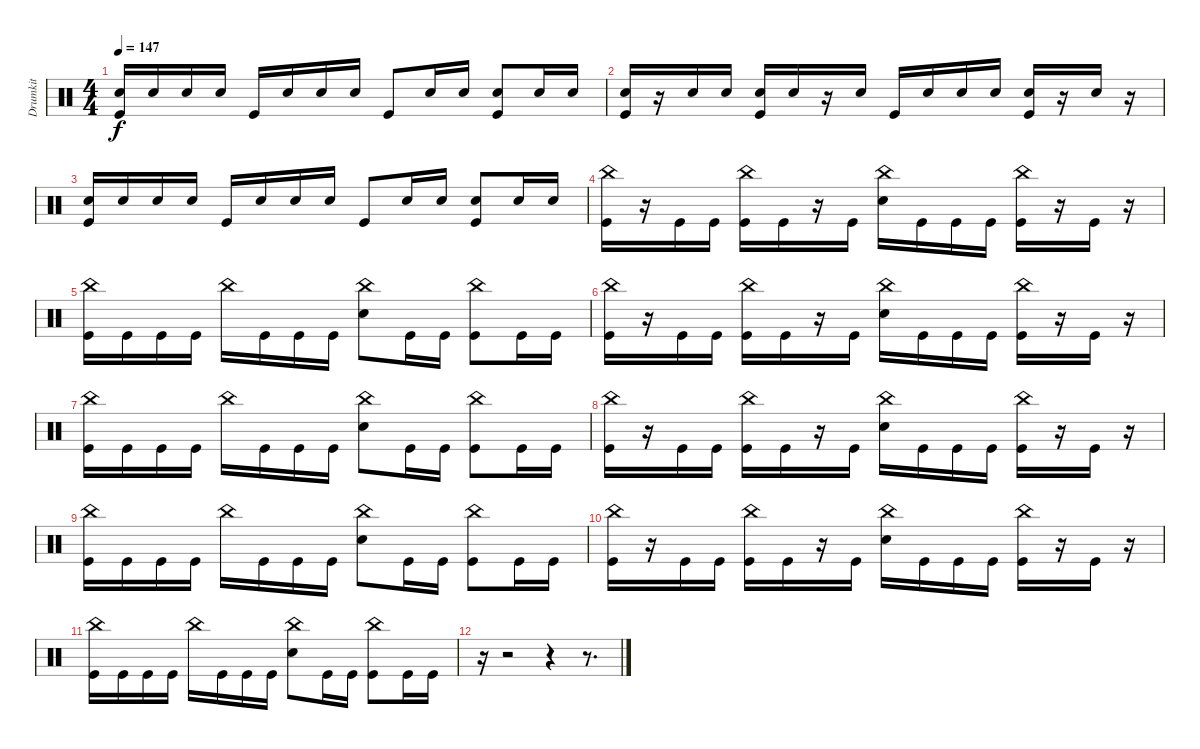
\track ("Drumkit" "Drumkit") {instrument percussion}
\staff {score}
\articulation defaults
\ts (4 4)
\tempo 147
\clef neutral
\ks c
("Snare (hit) 2" "Kick (hit)").16{dy f} "Snare (hit) 2".16 "Snare (hit) 2".16 "Snare (hit) 2".16 "Kick (hit)".16 "Snare (hit) 2".16 "Snare (hit) 2".16 "Snare (hit) 2".16 "Kick (hit)".8 "Snare (hit) 2".16 "Snare (hit) 2".16 ("Snare (hit) 2" "Kick (hit)").8 "Snare (hit) 2".16 "Snare (hit) 2".16 |
("Snare (hit) 2" "Kick (hit)").16 r.16 "Snare (hit) 2".16 "Snare (hit) 2".16 ("Snare (hit) 2" "Kick (hit)").16 "Snare (hit) 2".16 r.16 "Snare (hit) 2".16 "Kick (hit)".16 "Snare (hit) 2".16 "Snare (hit) 2".16 "Snare (hit) 2".16 ("Snare (hit) 2" "Kick (hit)").16 r.16 "Snare (hit) 2".16 r.16 |
("Snare (hit) 2" "Kick (hit)").16 "Snare (hit) 2".16 "Snare (hit) 2".16 "Snare (hit) 2".16 "Kick (hit)".16 "Snare (hit) 2".16 "Snare (hit) 2".16 "Snare (hit) 2".16 "Kick (hit)".8 "Snare (hit) 2".16 "Snare (hit) 2".16 ("Snare (hit) 2" "Kick (hit)").8 "Snare (hit) 2".16 "Snare (hit) 2".16 |
("China (hit)" "Kick (hit)").16 r.16 "Kick (hit)".16 "Kick (hit)".16 ("China (hit)" "Kick (hit)").16 "Kick (hit)".16 r.16 "Kick (hit)".16 ("China (hit)" "Snare (hit) 2").16 "Kick (hit)".16 "Kick (hit)".16 "Kick (hit)".16 ("China (hit)" "Kick (hit)").16 r.16 "Kick (hit)".16 r.16 |
("China (hit)" "Kick (hit)").16 "Kick (hit)".16 "Kick (hit)".16 "Kick (hit)".16 "China (hit)".16 "Kick (hit)".16 "Kick (hit)".16 "Kick (hit)".16 ("China (hit)" "Snare (hit) 2").8 "Kick (hit)".16 "Kick (hit)".16 ("China (hit)" "Kick (hit)").8 "Kick (hit)".16 "Kick (hit)".16 |
("China (hit)" "Kick (hit)").16 r.16 "Kick (hit)".16 "Kick (hit)".16 ("China (hit)" "Kick (hit)").16 "Kick (hit)".16 r.16 "Kick (hit)".16 ("China (hit)" "Snare (hit) 2").16 "Kick (hit)".16 "Kick (hit)".16 "Kick (hit)".16 ("China (hit)" "Kick (hit)").16 r.16 "Kick (hit)".16 r.16 |
("China (hit)" "Kick (hit)").16 "Kick (hit)".16 "Kick (hit)".16 "Kick (hit)".16 "China (hit)".16 "Kick (hit)".16 "Kick (hit)".16 "Kick (hit)".16 ("China (hit)" "Snare (hit) 2").8 "Kick (hit)".16 "Kick (hit)".16 ("China (hit)" "Kick (hit)").8 "Kick (hit)".16 "Kick (hit)".16 |
("China (hit)" "Kick (hit)").16 r.16 "Kick (hit)".16 "Kick (hit)".16 ("China (hit)" "Kick (hit)").16 "Kick (hit)".16 r.16 "Kick (hit)".16 ("China (hit)" "Snare (hit) 2").16 "Kick (hit)".16 "Kick (hit)".16 "Kick (hit)".16 ("China (hit)" "Kick (hit)").16 r.16 "Kick (hit)".16 r.16 |
("China (hit)" "Kick (hit)").16 "Kick (hit)".16 "Kick (hit)".16 "Kick (hit)".16 "China (hit)".16 "Kick (hit)".16 "Kick (hit)".16 "Kick (hit)".16 ("China (hit)" "Snare (hit) 2").8 "Kick (hit)".16 "Kick (hit)".16 ("China (hit)" "Kick (hit)").8 "Kick (hit)".16 "Kick (hit)".16 |
("China (hit)" "Kick (hit)").16 r.16 "Kick (hit)".16 "Kick (hit)".16 ("China (hit)" "Kick (hit)").16 "Kick (hit)".16 r.16 "Kick (hit)".16 ("China (hit)" "Snare (hit) 2").16 "Kick (hit)".16 "Kick (hit)".16 "Kick (hit)".16 ("China (hit)" "Kick (hit)").16 r.16 "Kick (hit)".16 r.16 |
("China (hit)" "Kick (hit)").16 "Kick (hit)".16 "Kick (hit)".16 "Kick (hit)".16 "China (hit)".16 "Kick (hit)".16 "Kick (hit)".16 "Kick (hit)".16 ("China (hit)" "Snare (hit) 2").8 "Kick (hit)".16 "Kick (hit)".16 ("China (hit)" "Kick (hit)").8 "Kick (hit)".16 "Kick (hit)".16 |
r.16 r.2 r.4 r.8{d}
